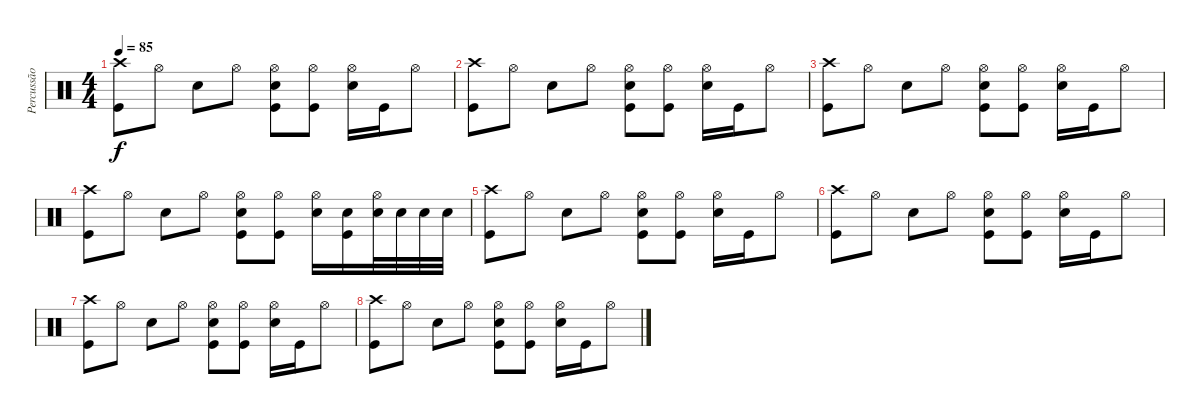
\track ("Percussão" "Percussão") {instrument percussion}
\staff {score}
\articulation defaults
\ts (4 4)
\tempo 85
\clef neutral
\ks c
("Crash high (hit)" "Kick (hit)").8{dy f} "Hi-Hat (open)".8 "Snare (hit) 2".8 "Hi-Hat (open)".8 ("Hi-Hat (open)" "Snare (hit) 2" "Kick (hit)").8 ("Hi-Hat (open)" "Kick (hit)").8 ("Hi-Hat (open)" "Snare (hit) 2").16 "Kick (hit)".16 "Hi-Hat (open)".8 |
("Crash high (hit)" "Kick (hit)").8 "Hi-Hat (open)".8 "Snare (hit) 2".8 "Hi-Hat (open)".8 ("Hi-Hat (open)" "Snare (hit) 2" "Kick (hit)").8 ("Hi-Hat (open)" "Kick (hit)").8 ("Hi-Hat (open)" "Snare (hit) 2").16 "Kick (hit)".16 "Hi-Hat (open)".8 |
("Crash high (hit)" "Kick (hit)").8 "Hi-Hat (open)".8 "Snare (hit) 2".8 "Hi-Hat (open)".8 ("Hi-Hat (open)" "Snare (hit) 2" "Kick (hit)").8 ("Hi-Hat (open)" "Kick (hit)").8 ("Hi-Hat (open)" "Snare (hit) 2").16 "Kick (hit)".16 "Hi-Hat (open)".8 |
("Crash high (hit)" "Kick (hit)").8 "Hi-Hat (open)".8 "Snare (hit) 2".8 "Hi-Hat (open)".8 ("Hi-Hat (open)" "Snare (hit) 2" "Kick (hit)").8 ("Hi-Hat (open)" "Kick (hit)").8 ("Hi-Hat (open)" "Snare (hit) 2").16 ("Snare (hit) 2" "Kick (hit)").16 ("Hi-Hat (open)" "Snare (hit) 2").32 "Snare (hit) 2".32 "Snare (hit) 2".32 "Snare (hit) 2".32 |
("Crash high (hit)" "Kick (hit)").8 "Hi-Hat (open)".8 "Snare (hit) 2".8 "Hi-Hat (open)".8 ("Hi-Hat (open)" "Snare (hit) 2" "Kick (hit)").8 ("Hi-Hat (open)" "Kick (hit)").8 ("Hi-Hat (open)" "Snare (hit) 2").16 "Kick (hit)".16 "Hi-Hat (open)".8 |
("Crash high (hit)" "Kick (hit)").8{volume 9} "Hi-Hat (open)".8 "Snare (hit) 2".8 "Hi-Hat (open)".8 ("Hi-Hat (open)" "Snare (hit) 2" "Kick (hit)").8 ("Hi-Hat (open)" "Kick (hit)").8 ("Hi-Hat (open)" "Snare (hit) 2").16 "Kick (hit)".16 "Hi-Hat (open)".8 |
("Crash high (hit)" "Kick (hit)").8{volume 4} "Hi-Hat (open)".8 "Snare (hit) 2".8 "Hi-Hat (open)".8 ("Hi-Hat (open)" "Snare (hit) 2" "Kick (hit)").8 ("Hi-Hat (open)" "Kick (hit)").8 ("Hi-Hat (open)" "Snare (hit) 2").16 "Kick (hit)".16 "Hi-Hat (open)".8 |
("Crash high (hit)" "Kick (hit)").8{volume 0} "Hi-Hat (open)".8 "Snare (hit) 2".8 "Hi-Hat (open)".8 ("Hi-Hat (open)" "Snare (hit) 2" "Kick (hit)").8 ("Hi-Hat (open)" "Kick (hit)").8 ("Hi-Hat (open)" "Snare (hit) 2").16 "Kick (hit)".16 "Hi-Hat (open)".8
